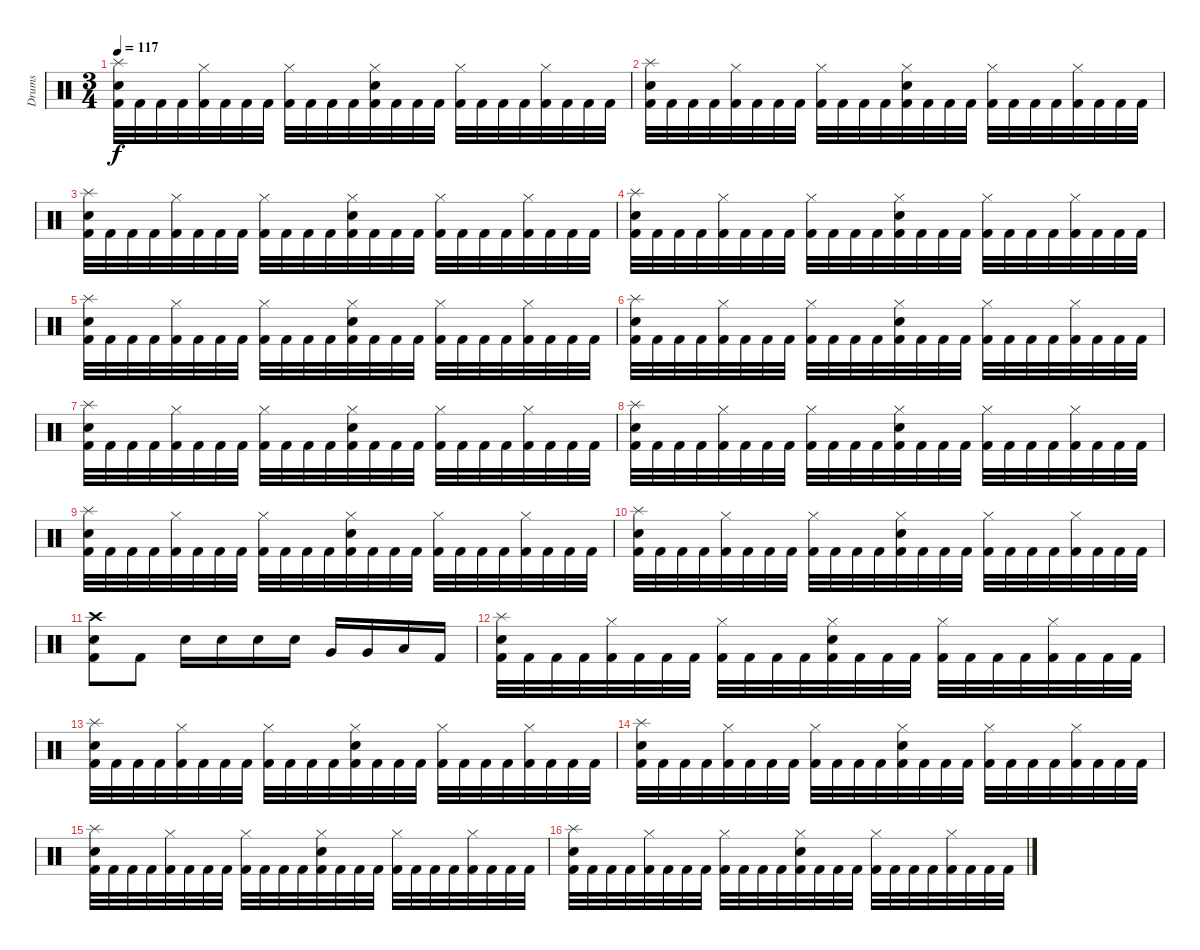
\track ("Drums" "Drums") {instrument percussion}
\staff {score}
\articulation defaults
\ts (3 4)
\tempo 117
\clef neutral
\ks c
("Splash (hit)" "Electric Snare (hit)" "Kick (hit) 2").32{dy f} "Kick (hit) 2".32 "Kick (hit) 2".32 "Kick (hit) 2".32 ("Hi-Hat (closed)" "Kick (hit) 2").32 "Kick (hit) 2".32 "Kick (hit) 2".32 "Kick (hit) 2".32 ("Hi-Hat (closed)" "Kick (hit) 2").32 "Kick (hit) 2".32 "Kick (hit) 2".32 "Kick (hit) 2".32 ("Hi-Hat (closed)" "Electric Snare (hit)" "Kick (hit) 2").32 "Kick (hit) 2".32 "Kick (hit) 2".32 "Kick (hit) 2".32 ("Hi-Hat (closed)" "Kick (hit) 2").32 "Kick (hit) 2".32 "Kick (hit) 2".32 "Kick (hit) 2".32 ("Hi-Hat (closed)" "Kick (hit) 2").32 "Kick (hit) 2".32 "Kick (hit) 2".32 "Kick (hit) 2".32 |
("Splash (hit)" "Electric Snare (hit)" "Kick (hit) 2").32 "Kick (hit) 2".32 "Kick (hit) 2".32 "Kick (hit) 2".32 ("Hi-Hat (closed)" "Kick (hit) 2").32 "Kick (hit) 2".32 "Kick (hit) 2".32 "Kick (hit) 2".32 ("Hi-Hat (closed)" "Kick (hit) 2").32 "Kick (hit) 2".32 "Kick (hit) 2".32 "Kick (hit) 2".32 ("Hi-Hat (closed)" "Electric Snare (hit)" "Kick (hit) 2").32 "Kick (hit) 2".32 "Kick (hit) 2".32 "Kick (hit) 2".32 ("Hi-Hat (closed)" "Kick (hit) 2").32 "Kick (hit) 2".32 "Kick (hit) 2".32 "Kick (hit) 2".32 ("Hi-Hat (closed)" "Kick (hit) 2").32 "Kick (hit) 2".32 "Kick (hit) 2".32 "Kick (hit) 2".32 |
("Splash (hit)" "Electric Snare (hit)" "Kick (hit) 2").32 "Kick (hit) 2".32 "Kick (hit) 2".32 "Kick (hit) 2".32 ("Hi-Hat (closed)" "Kick (hit) 2").32 "Kick (hit) 2".32 "Kick (hit) 2".32 "Kick (hit) 2".32 ("Hi-Hat (closed)" "Kick (hit) 2").32 "Kick (hit) 2".32 "Kick (hit) 2".32 "Kick (hit) 2".32 ("Hi-Hat (closed)" "Electric Snare (hit)" "Kick (hit) 2").32 "Kick (hit) 2".32 "Kick (hit) 2".32 "Kick (hit) 2".32 ("Hi-Hat (closed)" "Kick (hit) 2").32 "Kick (hit) 2".32 "Kick (hit) 2".32 "Kick (hit) 2".32 ("Hi-Hat (closed)" "Kick (hit) 2").32 "Kick (hit) 2".32 "Kick (hit) 2".32 "Kick (hit) 2".32 |
("Splash (hit)" "Electric Snare (hit)" "Kick (hit) 2").32 "Kick (hit) 2".32 "Kick (hit) 2".32 "Kick (hit) 2".32 ("Hi-Hat (closed)" "Kick (hit) 2").32 "Kick (hit) 2".32 "Kick (hit) 2".32 "Kick (hit) 2".32 ("Hi-Hat (closed)" "Kick (hit) 2").32 "Kick (hit) 2".32 "Kick (hit) 2".32 "Kick (hit) 2".32 ("Hi-Hat (closed)" "Electric Snare (hit)" "Kick (hit) 2").32 "Kick (hit) 2".32 "Kick (hit) 2".32 "Kick (hit) 2".32 ("Hi-Hat (closed)" "Kick (hit) 2").32 "Kick (hit) 2".32 "Kick (hit) 2".32 "Kick (hit) 2".32 ("Hi-Hat (closed)" "Kick (hit) 2").32 "Kick (hit) 2".32 "Kick (hit) 2".32 "Kick (hit) 2".32 |
("Splash (hit)" "Electric Snare (hit)" "Kick (hit) 2").32 "Kick (hit) 2".32 "Kick (hit) 2".32 "Kick (hit) 2".32 ("Hi-Hat (closed)" "Kick (hit) 2").32 "Kick (hit) 2".32 "Kick (hit) 2".32 "Kick (hit) 2".32 ("Hi-Hat (closed)" "Kick (hit) 2").32 "Kick (hit) 2".32 "Kick (hit) 2".32 "Kick (hit) 2".32 ("Hi-Hat (closed)" "Electric Snare (hit)" "Kick (hit) 2").32 "Kick (hit) 2".32 "Kick (hit) 2".32 "Kick (hit) 2".32 ("Hi-Hat (closed)" "Kick (hit) 2").32 "Kick (hit) 2".32 "Kick (hit) 2".32 "Kick (hit) 2".32 ("Hi-Hat (closed)" "Kick (hit) 2").32 "Kick (hit) 2".32 "Kick (hit) 2".32 "Kick (hit) 2".32 |
("Splash (hit)" "Electric Snare (hit)" "Kick (hit) 2").32 "Kick (hit) 2".32 "Kick (hit) 2".32 "Kick (hit) 2".32 ("Hi-Hat (closed)" "Kick (hit) 2").32 "Kick (hit) 2".32 "Kick (hit) 2".32 "Kick (hit) 2".32 ("Hi-Hat (closed)" "Kick (hit) 2").32 "Kick (hit) 2".32 "Kick (hit) 2".32 "Kick (hit) 2".32 ("Hi-Hat (closed)" "Electric Snare (hit)" "Kick (hit) 2").32 "Kick (hit) 2".32 "Kick (hit) 2".32 "Kick (hit) 2".32 ("Hi-Hat (closed)" "Kick (hit) 2").32 "Kick (hit) 2".32 "Kick (hit) 2".32 "Kick (hit) 2".32 ("Hi-Hat (closed)" "Kick (hit) 2").32 "Kick (hit) 2".32 "Kick (hit) 2".32 "Kick (hit) 2".32 |
("Splash (hit)" "Electric Snare (hit)" "Kick (hit) 2").32 "Kick (hit) 2".32 "Kick (hit) 2".32 "Kick (hit) 2".32 ("Hi-Hat (closed)" "Kick (hit) 2").32 "Kick (hit) 2".32 "Kick (hit) 2".32 "Kick (hit) 2".32 ("Hi-Hat (closed)" "Kick (hit) 2").32 "Kick (hit) 2".32 "Kick (hit) 2".32 "Kick (hit) 2".32 ("Hi-Hat (closed)" "Electric Snare (hit)" "Kick (hit) 2").32 "Kick (hit) 2".32 "Kick (hit) 2".32 "Kick (hit) 2".32 ("Hi-Hat (closed)" "Kick (hit) 2").32 "Kick (hit) 2".32 "Kick (hit) 2".32 "Kick (hit) 2".32 ("Hi-Hat (closed)" "Kick (hit) 2").32 "Kick (hit) 2".32 "Kick (hit) 2".32 "Kick (hit) 2".32 |
("Splash (hit)" "Electric Snare (hit)" "Kick (hit) 2").32 "Kick (hit) 2".32 "Kick (hit) 2".32 "Kick (hit) 2".32 ("Hi-Hat (closed)" "Kick (hit) 2").32 "Kick (hit) 2".32 "Kick (hit) 2".32 "Kick (hit) 2".32 ("Hi-Hat (closed)" "Kick (hit) 2").32 "Kick (hit) 2".32 "Kick (hit) 2".32 "Kick (hit) 2".32 ("Hi-Hat (closed)" "Electric Snare (hit)" "Kick (hit) 2").32 "Kick (hit) 2".32 "Kick (hit) 2".32 "Kick (hit) 2".32 ("Hi-Hat (closed)" "Kick (hit) 2").32 "Kick (hit) 2".32 "Kick (hit) 2".32 "Kick (hit) 2".32 ("Hi-Hat (closed)" "Kick (hit) 2").32 "Kick (hit) 2".32 "Kick (hit) 2".32 "Kick (hit) 2".32 |
("Splash (hit)" "Electric Snare (hit)" "Kick (hit) 2").32 "Kick (hit) 2".32 "Kick (hit) 2".32 "Kick (hit) 2".32 ("Hi-Hat (closed)" "Kick (hit) 2").32 "Kick (hit) 2".32 "Kick (hit) 2".32 "Kick (hit) 2".32 ("Hi-Hat (closed)" "Kick (hit) 2").32 "Kick (hit) 2".32 "Kick (hit) 2".32 "Kick (hit) 2".32 ("Hi-Hat (closed)" "Electric Snare (hit)" "Kick (hit) 2").32 "Kick (hit) 2".32 "Kick (hit) 2".32 "Kick (hit) 2".32 ("Hi-Hat (closed)" "Kick (hit) 2").32 "Kick (hit) 2".32 "Kick (hit) 2".32 "Kick (hit) 2".32 ("Hi-Hat (closed)" "Kick (hit) 2").32 "Kick (hit) 2".32 "Kick (hit) 2".32 "Kick (hit) 2".32 |
("Splash (hit)" "Electric Snare (hit)" "Kick (hit) 2").32 "Kick (hit) 2".32 "Kick (hit) 2".32 "Kick (hit) 2".32 ("Hi-Hat (closed)" "Kick (hit) 2").32 "Kick (hit) 2".32 "Kick (hit) 2".32 "Kick (hit) 2".32 ("Hi-Hat (closed)" "Kick (hit) 2").32 "Kick (hit) 2".32 "Kick (hit) 2".32 "Kick (hit) 2".32 ("Hi-Hat (closed)" "Electric Snare (hit)" "Kick (hit) 2").32 "Kick (hit) 2".32 "Kick (hit) 2".32 "Kick (hit) 2".32 ("Hi-Hat (closed)" "Kick (hit) 2").32 "Kick (hit) 2".32 "Kick (hit) 2".32 "Kick (hit) 2".32 ("Hi-Hat (closed)" "Kick (hit) 2").32 "Kick (hit) 2".32 "Kick (hit) 2".32 "Kick (hit) 2".32 |
("Crash high (hit)" "Electric Snare (hit)" "Kick (hit) 2").8 "Kick (hit) 2".8 "Electric Snare (hit)".16 "Electric Snare (hit)".16 "Electric Snare (hit)".16 "Electric Snare (hit)".16 "Very Low Tom (hit)".16 "Very Low Tom (hit)".16 "Low Floor Tom (hit)".16 "Kick (hit) 2".16 |
("Splash (hit)" "Electric Snare (hit)" "Kick (hit) 2").32 "Kick (hit) 2".32 "Kick (hit) 2".32 "Kick (hit) 2".32 ("Hi-Hat (closed)" "Kick (hit) 2").32 "Kick (hit) 2".32 "Kick (hit) 2".32 "Kick (hit) 2".32 ("Hi-Hat (closed)" "Kick (hit) 2").32 "Kick (hit) 2".32 "Kick (hit) 2".32 "Kick (hit) 2".32 ("Hi-Hat (closed)" "Electric Snare (hit)" "Kick (hit) 2").32 "Kick (hit) 2".32 "Kick (hit) 2".32 "Kick (hit) 2".32 ("Hi-Hat (closed)" "Kick (hit) 2").32 "Kick (hit) 2".32 "Kick (hit) 2".32 "Kick (hit) 2".32 ("Hi-Hat (closed)" "Kick (hit) 2").32 "Kick (hit) 2".32 "Kick (hit) 2".32 "Kick (hit) 2".32 |
("Splash (hit)" "Electric Snare (hit)" "Kick (hit) 2").32 "Kick (hit) 2".32 "Kick (hit) 2".32 "Kick (hit) 2".32 ("Hi-Hat (closed)" "Kick (hit) 2").32 "Kick (hit) 2".32 "Kick (hit) 2".32 "Kick (hit) 2".32 ("Hi-Hat (closed)" "Kick (hit) 2").32 "Kick (hit) 2".32 "Kick (hit) 2".32 "Kick (hit) 2".32 ("Hi-Hat (closed)" "Electric Snare (hit)" "Kick (hit) 2").32 "Kick (hit) 2".32 "Kick (hit) 2".32 "Kick (hit) 2".32 ("Hi-Hat (closed)" "Kick (hit) 2").32 "Kick (hit) 2".32 "Kick (hit) 2".32 "Kick (hit) 2".32 ("Hi-Hat (closed)" "Kick (hit) 2").32 "Kick (hit) 2".32 "Kick (hit) 2".32 "Kick (hit) 2".32 |
("Splash (hit)" "Electric Snare (hit)" "Kick (hit) 2").32 "Kick (hit) 2".32 "Kick (hit) 2".32 "Kick (hit) 2".32 ("Hi-Hat (closed)" "Kick (hit) 2").32 "Kick (hit) 2".32 "Kick (hit) 2".32 "Kick (hit) 2".32 ("Hi-Hat (closed)" "Kick (hit) 2").32 "Kick (hit) 2".32 "Kick (hit) 2".32 "Kick (hit) 2".32 ("Hi-Hat (closed)" "Electric Snare (hit)" "Kick (hit) 2").32 "Kick (hit) 2".32 "Kick (hit) 2".32 "Kick (hit) 2".32 ("Hi-Hat (closed)" "Kick (hit) 2").32 "Kick (hit) 2".32 "Kick (hit) 2".32 "Kick (hit) 2".32 ("Hi-Hat (closed)" "Kick (hit) 2").32 "Kick (hit) 2".32 "Kick (hit) 2".32 "Kick (hit) 2".32 |
("Splash (hit)" "Electric Snare (hit)" "Kick (hit) 2").32 "Kick (hit) 2".32 "Kick (hit) 2".32 "Kick (hit) 2".32 ("Hi-Hat (closed)" "Kick (hit) 2").32 "Kick (hit) 2".32 "Kick (hit) 2".32 "Kick (hit) 2".32 ("Hi-Hat (closed)" "Kick (hit) 2").32 "Kick (hit) 2".32 "Kick (hit) 2".32 "Kick (hit) 2".32 ("Hi-Hat (closed)" "Electric Snare (hit)" "Kick (hit) 2").32 "Kick (hit) 2".32 "Kick (hit) 2".32 "Kick (hit) 2".32 ("Hi-Hat (closed)" "Kick (hit) 2").32 "Kick (hit) 2".32 "Kick (hit) 2".32 "Kick (hit) 2".32 ("Hi-Hat (closed)" "Kick (hit) 2").32 "Kick (hit) 2".32 "Kick (hit) 2".32 "Kick (hit) 2".32 |
("Splash (hit)" "Electric Snare (hit)" "Kick (hit) 2").32 "Kick (hit) 2".32 "Kick (hit) 2".32 "Kick (hit) 2".32 ("Hi-Hat (closed)" "Kick (hit) 2").32 "Kick (hit) 2".32 "Kick (hit) 2".32 "Kick (hit) 2".32 ("Hi-Hat (closed)" "Kick (hit) 2").32 "Kick (hit) 2".32 "Kick (hit) 2".32 "Kick (hit) 2".32 ("Hi-Hat (closed)" "Electric Snare (hit)" "Kick (hit) 2").32 "Kick (hit) 2".32 "Kick (hit) 2".32 "Kick (hit) 2".32 ("Hi-Hat (closed)" "Kick (hit) 2").32 "Kick (hit) 2".32 "Kick (hit) 2".32 "Kick (hit) 2".32 ("Hi-Hat (closed)" "Kick (hit) 2").32 "Kick (hit) 2".32 "Kick (hit) 2".32 "Kick (hit) 2".32
